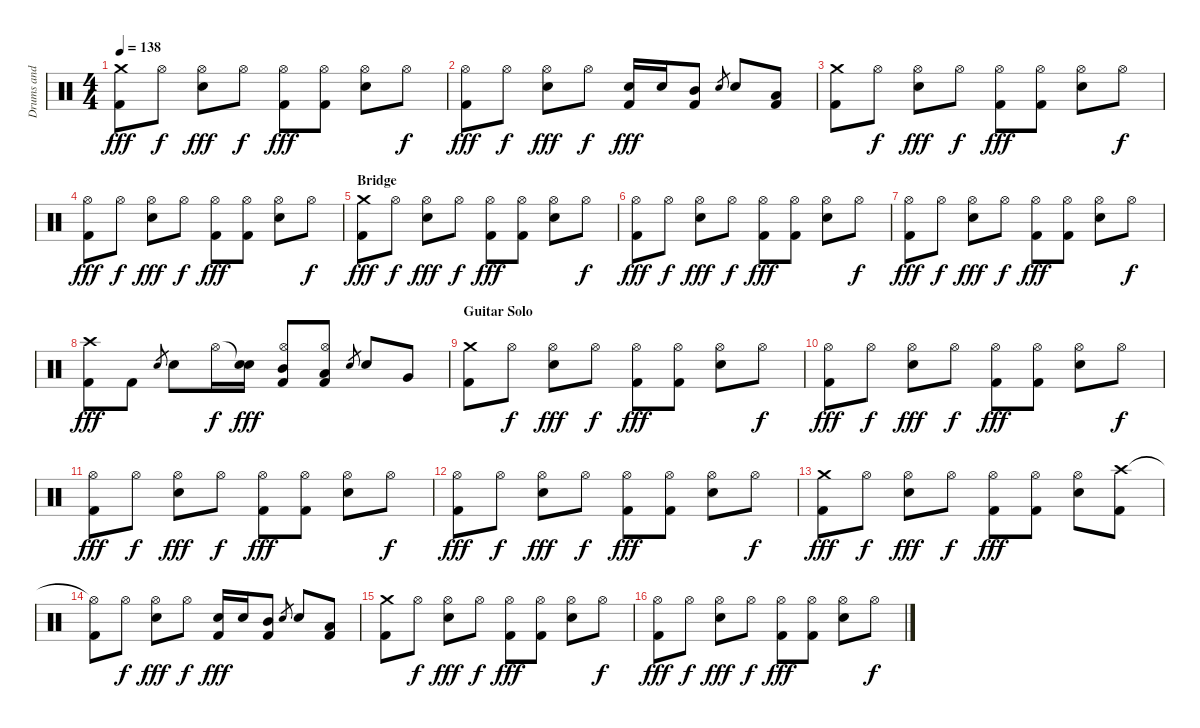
\track ("Drums and Percussion" "Drums and ") {instrument percussion}
\staff {score}
\articulation defaults
\ts (4 4)
\tempo 138
\clef neutral
\ks c
("Crash medium (hit)" "Kick (hit) 2").8{dy fff} "Hi-Hat (open)".8{dy f} ("Hi-Hat (open)" "Snare (hit) 2").8{dy fff} "Hi-Hat (open)".8{dy f} ("Hi-Hat (open)" "Kick (hit) 2").8{dy fff} ("Hi-Hat (open)" "Kick (hit) 2").8 ("Hi-Hat (open)" "Snare (hit) 2").8 "Hi-Hat (open)".8{dy f} |
("Hi-Hat (open)" "Kick (hit) 2").8{dy fff} "Hi-Hat (open)".8{dy f} ("Hi-Hat (open)" "Snare (hit) 2").8{dy fff} "Hi-Hat (open)".8{dy f} ("Snare (hit) 2" "Kick (hit) 2").16{dy fff} "Snare (hit) 2".16 ("Mid Tom (hit)" "Kick (hit) 2").8 "Snare (hit) 2".8{gr} "Snare (hit) 2".8 ("Low Tom (hit)" "Kick (hit) 2").8 |
("Crash medium (hit)" "Kick (hit) 2").8 "Hi-Hat (open)".8{dy f} ("Hi-Hat (open)" "Snare (hit) 2").8{dy fff} "Hi-Hat (open)".8{dy f} ("Hi-Hat (open)" "Kick (hit) 2").8{dy fff} ("Hi-Hat (open)" "Kick (hit) 2").8 ("Hi-Hat (open)" "Snare (hit) 2").8 "Hi-Hat (open)".8{dy f} |
("Hi-Hat (open)" "Kick (hit) 2").8{dy fff} "Hi-Hat (open)".8{dy f} ("Hi-Hat (open)" "Snare (hit) 2").8{dy fff} "Hi-Hat (open)".8{dy f} ("Hi-Hat (open)" "Kick (hit) 2").8{dy fff} ("Hi-Hat (open)" "Kick (hit) 2").8 ("Hi-Hat (open)" "Snare (hit) 2").8 "Hi-Hat (open)".8{dy f} |
\section ("" "Bridge")
("Crash medium (hit)" "Kick (hit) 2").8{dy fff} "Hi-Hat (open)".8{dy f} ("Hi-Hat (open)" "Snare (hit) 2").8{dy fff} "Hi-Hat (open)".8{dy f} ("Hi-Hat (open)" "Kick (hit) 2").8{dy fff} ("Hi-Hat (open)" "Kick (hit) 2").8 ("Hi-Hat (open)" "Snare (hit) 2").8 "Hi-Hat (open)".8{dy f} |
("Hi-Hat (open)" "Kick (hit) 2").8{dy fff} "Hi-Hat (open)".8{dy f} ("Hi-Hat (open)" "Snare (hit) 2").8{dy fff} "Hi-Hat (open)".8{dy f} ("Hi-Hat (open)" "Kick (hit) 2").8{dy fff} ("Hi-Hat (open)" "Kick (hit) 2").8 ("Hi-Hat (open)" "Snare (hit) 2").8 "Hi-Hat (open)".8{dy f} |
("Hi-Hat (open)" "Kick (hit) 2").8{dy fff} "Hi-Hat (open)".8{dy f} ("Hi-Hat (open)" "Snare (hit) 2").8{dy fff} "Hi-Hat (open)".8{dy f} ("Hi-Hat (open)" "Kick (hit) 2").8{dy fff} ("Hi-Hat (open)" "Kick (hit) 2").8 ("Hi-Hat (open)" "Snare (hit) 2").8 "Hi-Hat (open)".8{dy f} |
("Crash high (hit)" "Kick (hit) 2").8{dy fff} "Kick (hit) 2".8 "Snare (hit) 2".8{gr} "Snare (hit) 2".8 "Hi-Hat (open)".16{dy f} ("Snare (hit)"{t} "Snare (hit) 2").16{dy fff} ("Hi-Hat (open)" "Mid Tom (hit)" "Kick (hit) 2").8 ("Hi-Hat (open)" "Low Tom (hit)" "Kick (hit) 2").8 "Snare (hit) 2".8{gr} "Snare (hit) 2".8 "Very Low Tom (hit)".8 |
\section ("" "Guitar Solo")
("Crash medium (hit)" "Kick (hit) 2").8 "Hi-Hat (open)".8{dy f} ("Hi-Hat (open)" "Snare (hit) 2").8{dy fff} "Hi-Hat (open)".8{dy f} ("Hi-Hat (open)" "Kick (hit) 2").8{dy fff} ("Hi-Hat (open)" "Kick (hit) 2").8 ("Hi-Hat (open)" "Snare (hit) 2").8 "Hi-Hat (open)".8{dy f} |
("Hi-Hat (open)" "Kick (hit) 2").8{dy fff} "Hi-Hat (open)".8{dy f} ("Hi-Hat (open)" "Snare (hit) 2").8{dy fff} "Hi-Hat (open)".8{dy f} ("Hi-Hat (open)" "Kick (hit) 2").8{dy fff} ("Hi-Hat (open)" "Kick (hit) 2").8 ("Hi-Hat (open)" "Snare (hit) 2").8 "Hi-Hat (open)".8{dy f} |
("Hi-Hat (open)" "Kick (hit) 2").8{dy fff} "Hi-Hat (open)".8{dy f} ("Hi-Hat (open)" "Snare (hit) 2").8{dy fff} "Hi-Hat (open)".8{dy f} ("Hi-Hat (open)" "Kick (hit) 2").8{dy fff} ("Hi-Hat (open)" "Kick (hit) 2").8 ("Hi-Hat (open)" "Snare (hit) 2").8 "Hi-Hat (open)".8{dy f} |
("Hi-Hat (open)" "Kick (hit) 2").8{dy fff} "Hi-Hat (open)".8{dy f} ("Hi-Hat (open)" "Snare (hit) 2").8{dy fff} "Hi-Hat (open)".8{dy f} ("Hi-Hat (open)" "Kick (hit) 2").8{dy fff} ("Hi-Hat (open)" "Kick (hit) 2").8 ("Hi-Hat (open)" "Snare (hit) 2").8 "Hi-Hat (open)".8{dy f} |
("Crash medium (hit)" "Kick (hit) 2").8{dy fff} "Hi-Hat (open)".8{dy f} ("Hi-Hat (open)" "Snare (hit) 2").8{dy fff} "Hi-Hat (open)".8{dy f} ("Hi-Hat (open)" "Kick (hit) 2").8{dy fff} ("Hi-Hat (open)" "Kick (hit) 2").8 ("Hi-Hat (open)" "Snare (hit) 2").8 ("Crash high (hit)" "Kick (hit) 2").8 |
("Hi-Hat (open)"{t} "Kick (hit) 2").8 "Hi-Hat (open)".8{dy f} ("Hi-Hat (open)" "Snare (hit) 2").8{dy fff} "Hi-Hat (open)".8{dy f} ("Snare (hit) 2" "Kick (hit) 2").16{dy fff} "Snare (hit) 2".16 ("Mid Tom (hit)" "Kick (hit) 2").8 "Snare (hit) 2".8{gr} "Snare (hit) 2".8 ("Low Tom (hit)" "Kick (hit) 2").8 |
("Crash medium (hit)" "Kick (hit) 2").8 "Hi-Hat (open)".8{dy f} ("Hi-Hat (open)" "Snare (hit) 2").8{dy fff} "Hi-Hat (open)".8{dy f} ("Hi-Hat (open)" "Kick (hit) 2").8{dy fff} ("Hi-Hat (open)" "Kick (hit) 2").8 ("Hi-Hat (open)" "Snare (hit) 2").8 "Hi-Hat (open)".8{dy f} |
("Hi-Hat (open)" "Kick (hit) 2").8{dy fff} "Hi-Hat (open)".8{dy f} ("Hi-Hat (open)" "Snare (hit) 2").8{dy fff} "Hi-Hat (open)".8{dy f} ("Hi-Hat (open)" "Kick (hit) 2").8{dy fff} ("Hi-Hat (open)" "Kick (hit) 2").8 ("Hi-Hat (open)" "Snare (hit) 2").8 "Hi-Hat (open)".8{dy f}
